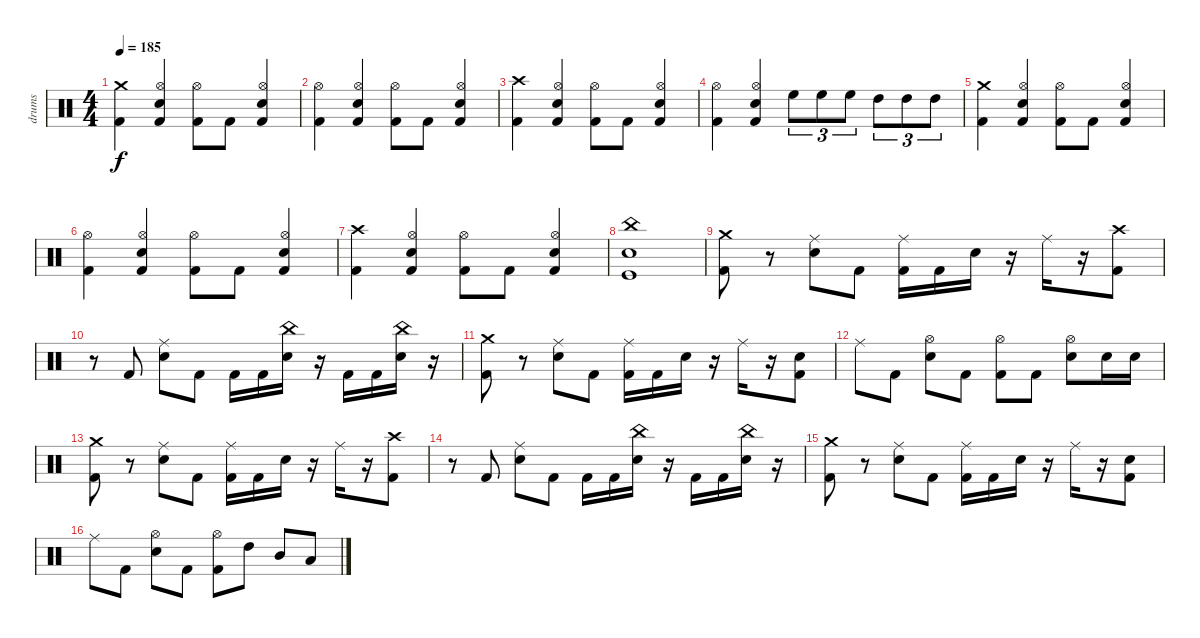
\track ("drums" "drums") {instrument percussion}
\staff {score}
\articulation defaults
\ts (4 4)
\tempo 185
\clef neutral
\ks c
("Crash medium (hit)" "Kick (hit) 2").4{dy f} ("Hi-Hat (open)" "Snare (hit) 2" "Kick (hit) 2").4 ("Hi-Hat (open)" "Kick (hit) 2").8 "Kick (hit) 2".8 ("Hi-Hat (open)" "Snare (hit) 2" "Kick (hit) 2").4 |
("Hi-Hat (open)" "Kick (hit) 2").4 ("Hi-Hat (open)" "Snare (hit) 2" "Kick (hit) 2").4 ("Hi-Hat (open)" "Kick (hit) 2").8 "Kick (hit) 2".8 ("Hi-Hat (open)" "Snare (hit) 2" "Kick (hit) 2").4 |
("Crash high (hit)" "Kick (hit) 2").4 ("Hi-Hat (open)" "Snare (hit) 2" "Kick (hit) 2").4 ("Hi-Hat (open)" "Kick (hit) 2").8 "Kick (hit) 2".8 ("Hi-Hat (open)" "Snare (hit) 2" "Kick (hit) 2").4 |
("Hi-Hat (open)" "Kick (hit) 2").4 ("Hi-Hat (open)" "Snare (hit) 2" "Kick (hit) 2").4 "High Floor Tom (hit)".8{tu (3 2)} "High Floor Tom (hit)".8{tu (3 2)} "High Floor Tom (hit)".8{tu (3 2)} "High Tom (hit)".8{tu (3 2)} "High Tom (hit)".8{tu (3 2)} "High Tom (hit)".8{tu (3 2)} |
("Crash medium (hit)" "Kick (hit) 2").4 ("Hi-Hat (open)" "Snare (hit) 2" "Kick (hit) 2").4 ("Hi-Hat (open)" "Kick (hit) 2").8 "Kick (hit) 2".8 ("Hi-Hat (open)" "Snare (hit) 2" "Kick (hit) 2").4 |
("Hi-Hat (open)" "Kick (hit) 2").4 ("Hi-Hat (open)" "Snare (hit) 2" "Kick (hit) 2").4 ("Hi-Hat (open)" "Kick (hit) 2").8 "Kick (hit) 2".8 ("Hi-Hat (open)" "Snare (hit) 2" "Kick (hit) 2").4 |
("Crash high (hit)" "Kick (hit) 2").4 ("Hi-Hat (open)" "Snare (hit) 2" "Kick (hit) 2").4 ("Hi-Hat (open)" "Kick (hit) 2").8 "Kick (hit) 2".8 ("Hi-Hat (open)" "Snare (hit) 2" "Kick (hit) 2").4 |
("China (hit)" "Snare (hit) 2" "Kick (hit)").1 |
("Crash medium (hit)" "Kick (hit) 2").8 r.8 ("Ride (middle)" "Snare (hit) 2").8 "Kick (hit) 2".8 ("Ride (middle)" "Kick (hit) 2").16 "Kick (hit) 2".16 "Snare (hit) 2".16 r.16 "Ride (middle)".16 r.16 ("Crash high (hit)" "Kick (hit) 2").8 |
r.8 "Kick (hit) 2".8 ("Ride (middle)" "Snare (hit) 2").8 "Kick (hit) 2".8 "Kick (hit) 2".16 "Kick (hit) 2".16 ("China (hit)" "Snare (hit) 2").16 r.16 "Kick (hit) 2".16 "Kick (hit) 2".16 ("China (hit)" "Snare (hit) 2").16 r.16 |
("Crash medium (hit)" "Kick (hit) 2").8 r.8 ("Ride (middle)" "Snare (hit) 2").8 "Kick (hit) 2".8 ("Ride (middle)" "Kick (hit) 2").16 "Kick (hit) 2".16 "Snare (hit) 2".16 r.16 "Ride (middle)".16 r.16 ("Snare (hit) 2" "Kick (hit) 2").8 |
"Ride (middle)".8 "Kick (hit) 2".8 ("Hi-Hat (open)" "Snare (hit) 2").8 "Kick (hit) 2".8 ("Hi-Hat (open)" "Kick (hit) 2").8 "Kick (hit) 2".8 ("Hi-Hat (open)" "Snare (hit) 2").8 "Snare (hit) 2".16 "Snare (hit) 2".16 |
("Crash medium (hit)" "Kick (hit) 2").8 r.8 ("Ride (middle)" "Snare (hit) 2").8 "Kick (hit) 2".8 ("Ride (middle)" "Kick (hit) 2").16 "Kick (hit) 2".16 "Snare (hit) 2".16 r.16 "Ride (middle)".16 r.16 ("Crash high (hit)" "Kick (hit) 2").8 |
r.8 "Kick (hit) 2".8 ("Ride (middle)" "Snare (hit) 2").8 "Kick (hit) 2".8 "Kick (hit) 2".16 "Kick (hit) 2".16 ("China (hit)" "Snare (hit) 2").16 r.16 "Kick (hit) 2".16 "Kick (hit) 2".16 ("China (hit)" "Snare (hit) 2").16 r.16 |
("Crash medium (hit)" "Kick (hit) 2").8 r.8 ("Ride (middle)" "Snare (hit) 2").8 "Kick (hit) 2".8 ("Ride (middle)" "Kick (hit) 2").16 "Kick (hit) 2".16 "Snare (hit) 2".16 r.16 "Ride (middle)".16 r.16 ("Snare (hit) 2" "Kick (hit) 2").8 |
"Ride (middle)".8 "Kick (hit) 2".8 ("Hi-Hat (open)" "Snare (hit) 2").8 "Kick (hit) 2".8 ("Hi-Hat (open)" "Kick (hit) 2").8 "High Tom (hit)".8 "Mid Tom (hit)".8 "Low Tom (hit)".8
